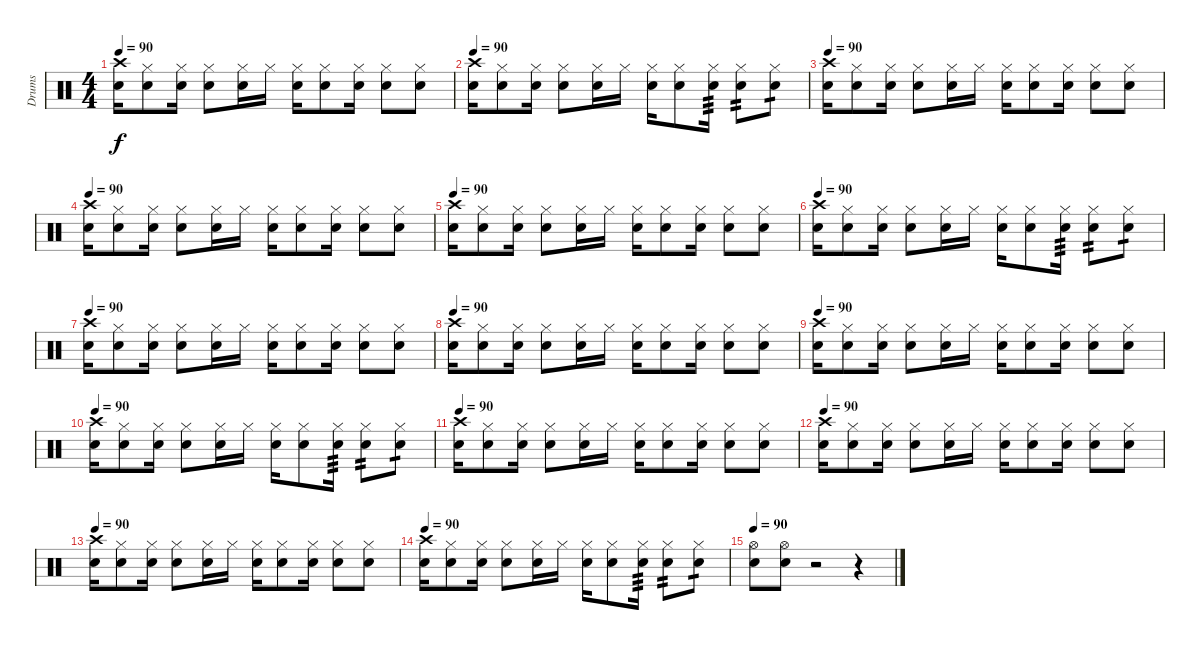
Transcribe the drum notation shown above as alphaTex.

\track ("Drums" "Drums") {instrument percussion}
\staff {score}
\articulation defaults
\ts (4 4)
\tempo 90
\clef neutral
\ks c
("Crash high (hit)" "Snare (hit) 2").16{dy f} ("Hi-Hat (closed)" "Snare (hit) 2").8 ("Hi-Hat (closed)" "Snare (hit) 2").16 ("Hi-Hat (closed)" "Snare (hit) 2").8 ("Hi-Hat (closed)" "Snare (hit) 2").16 "Hi-Hat (closed)".16 ("Hi-Hat (closed)" "Snare (hit) 2").16 ("Hi-Hat (closed)" "Snare (hit) 2").8 ("Hi-Hat (closed)" "Snare (hit) 2").16 ("Hi-Hat (closed)" "Snare (hit) 2").8 ("Hi-Hat (closed)" "Snare (hit) 2").8 |
\tempo 90
("Crash high (hit)" "Snare (hit) 2").16 ("Hi-Hat (closed)" "Snare (hit) 2").8 ("Hi-Hat (closed)" "Snare (hit) 2").16 ("Hi-Hat (closed)" "Snare (hit) 2").8 ("Hi-Hat (closed)" "Snare (hit) 2").16 "Hi-Hat (closed)".16 ("Hi-Hat (closed)" "Snare (hit) 2").16 ("Hi-Hat (closed)" "Snare (hit) 2").8 ("Hi-Hat (closed)" "Snare (hit) 2").16{tp 3} ("Hi-Hat (closed)" "Snare (hit) 2").8{tp 2} ("Hi-Hat (closed)" "Snare (hit) 2").8{tp 1} |
\tempo 90
("Crash high (hit)" "Snare (hit) 2").16 ("Hi-Hat (closed)" "Snare (hit) 2").8 ("Hi-Hat (closed)" "Snare (hit) 2").16 ("Hi-Hat (closed)" "Snare (hit) 2").8 ("Hi-Hat (closed)" "Snare (hit) 2").16 "Hi-Hat (closed)".16 ("Hi-Hat (closed)" "Snare (hit) 2").16 ("Hi-Hat (closed)" "Snare (hit) 2").8 ("Hi-Hat (closed)" "Snare (hit) 2").16 ("Hi-Hat (closed)" "Snare (hit) 2").8 ("Hi-Hat (closed)" "Snare (hit) 2").8 |
\tempo 90
("Crash high (hit)" "Snare (hit) 2").16 ("Hi-Hat (closed)" "Snare (hit) 2").8 ("Hi-Hat (closed)" "Snare (hit) 2").16 ("Hi-Hat (closed)" "Snare (hit) 2").8 ("Hi-Hat (closed)" "Snare (hit) 2").16 "Hi-Hat (closed)".16 ("Hi-Hat (closed)" "Snare (hit) 2").16 ("Hi-Hat (closed)" "Snare (hit) 2").8 ("Hi-Hat (closed)" "Snare (hit) 2").16 ("Hi-Hat (closed)" "Snare (hit) 2").8 ("Hi-Hat (closed)" "Snare (hit) 2").8 |
\tempo 90
("Crash high (hit)" "Snare (hit) 2").16 ("Hi-Hat (closed)" "Snare (hit) 2").8 ("Hi-Hat (closed)" "Snare (hit) 2").16 ("Hi-Hat (closed)" "Snare (hit) 2").8 ("Hi-Hat (closed)" "Snare (hit) 2").16 "Hi-Hat (closed)".16 ("Hi-Hat (closed)" "Snare (hit) 2").16 ("Hi-Hat (closed)" "Snare (hit) 2").8 ("Hi-Hat (closed)" "Snare (hit) 2").16 ("Hi-Hat (closed)" "Snare (hit) 2").8 ("Hi-Hat (closed)" "Snare (hit) 2").8 |
\tempo 90
("Crash high (hit)" "Snare (hit) 2").16 ("Hi-Hat (closed)" "Snare (hit) 2").8 ("Hi-Hat (closed)" "Snare (hit) 2").16 ("Hi-Hat (closed)" "Snare (hit) 2").8 ("Hi-Hat (closed)" "Snare (hit) 2").16 "Hi-Hat (closed)".16 ("Hi-Hat (closed)" "Snare (hit) 2").16 ("Hi-Hat (closed)" "Snare (hit) 2").8 ("Hi-Hat (closed)" "Snare (hit) 2").16{tp 3} ("Hi-Hat (closed)" "Snare (hit) 2").8{tp 2} ("Hi-Hat (closed)" "Snare (hit) 2").8{tp 1} |
\tempo 90
("Crash high (hit)" "Snare (hit) 2").16 ("Hi-Hat (closed)" "Snare (hit) 2").8 ("Hi-Hat (closed)" "Snare (hit) 2").16 ("Hi-Hat (closed)" "Snare (hit) 2").8 ("Hi-Hat (closed)" "Snare (hit) 2").16 "Hi-Hat (closed)".16 ("Hi-Hat (closed)" "Snare (hit) 2").16 ("Hi-Hat (closed)" "Snare (hit) 2").8 ("Hi-Hat (closed)" "Snare (hit) 2").16 ("Hi-Hat (closed)" "Snare (hit) 2").8 ("Hi-Hat (closed)" "Snare (hit) 2").8 |
\tempo 90
("Crash high (hit)" "Snare (hit) 2").16 ("Hi-Hat (closed)" "Snare (hit) 2").8 ("Hi-Hat (closed)" "Snare (hit) 2").16 ("Hi-Hat (closed)" "Snare (hit) 2").8 ("Hi-Hat (closed)" "Snare (hit) 2").16 "Hi-Hat (closed)".16 ("Hi-Hat (closed)" "Snare (hit) 2").16 ("Hi-Hat (closed)" "Snare (hit) 2").8 ("Hi-Hat (closed)" "Snare (hit) 2").16 ("Hi-Hat (closed)" "Snare (hit) 2").8 ("Hi-Hat (closed)" "Snare (hit) 2").8 |
\tempo 90
("Crash high (hit)" "Snare (hit) 2").16 ("Hi-Hat (closed)" "Snare (hit) 2").8 ("Hi-Hat (closed)" "Snare (hit) 2").16 ("Hi-Hat (closed)" "Snare (hit) 2").8 ("Hi-Hat (closed)" "Snare (hit) 2").16 "Hi-Hat (closed)".16 ("Hi-Hat (closed)" "Snare (hit) 2").16 ("Hi-Hat (closed)" "Snare (hit) 2").8 ("Hi-Hat (closed)" "Snare (hit) 2").16 ("Hi-Hat (closed)" "Snare (hit) 2").8 ("Hi-Hat (closed)" "Snare (hit) 2").8 |
\tempo 90
("Crash high (hit)" "Snare (hit) 2").16 ("Hi-Hat (closed)" "Snare (hit) 2").8 ("Hi-Hat (closed)" "Snare (hit) 2").16 ("Hi-Hat (closed)" "Snare (hit) 2").8 ("Hi-Hat (closed)" "Snare (hit) 2").16 "Hi-Hat (closed)".16 ("Hi-Hat (closed)" "Snare (hit) 2").16 ("Hi-Hat (closed)" "Snare (hit) 2").8 ("Hi-Hat (closed)" "Snare (hit) 2").16{tp 3} ("Hi-Hat (closed)" "Snare (hit) 2").8{tp 2} ("Hi-Hat (closed)" "Snare (hit) 2").8{tp 1} |
\tempo 90
("Crash high (hit)" "Snare (hit) 2").16 ("Hi-Hat (closed)" "Snare (hit) 2").8 ("Hi-Hat (closed)" "Snare (hit) 2").16 ("Hi-Hat (closed)" "Snare (hit) 2").8 ("Hi-Hat (closed)" "Snare (hit) 2").16 "Hi-Hat (closed)".16 ("Hi-Hat (closed)" "Snare (hit) 2").16 ("Hi-Hat (closed)" "Snare (hit) 2").8 ("Hi-Hat (closed)" "Snare (hit) 2").16 ("Hi-Hat (closed)" "Snare (hit) 2").8 ("Hi-Hat (closed)" "Snare (hit) 2").8 |
\tempo 90
("Crash high (hit)" "Snare (hit) 2").16 ("Hi-Hat (closed)" "Snare (hit) 2").8 ("Hi-Hat (closed)" "Snare (hit) 2").16 ("Hi-Hat (closed)" "Snare (hit) 2").8 ("Hi-Hat (closed)" "Snare (hit) 2").16 "Hi-Hat (closed)".16 ("Hi-Hat (closed)" "Snare (hit) 2").16 ("Hi-Hat (closed)" "Snare (hit) 2").8 ("Hi-Hat (closed)" "Snare (hit) 2").16 ("Hi-Hat (closed)" "Snare (hit) 2").8 ("Hi-Hat (closed)" "Snare (hit) 2").8 |
\tempo 90
("Crash high (hit)" "Snare (hit) 2").16 ("Hi-Hat (closed)" "Snare (hit) 2").8 ("Hi-Hat (closed)" "Snare (hit) 2").16 ("Hi-Hat (closed)" "Snare (hit) 2").8 ("Hi-Hat (closed)" "Snare (hit) 2").16 "Hi-Hat (closed)".16 ("Hi-Hat (closed)" "Snare (hit) 2").16 ("Hi-Hat (closed)" "Snare (hit) 2").8 ("Hi-Hat (closed)" "Snare (hit) 2").16 ("Hi-Hat (closed)" "Snare (hit) 2").8 ("Hi-Hat (closed)" "Snare (hit) 2").8 |
\tempo 90
("Crash high (hit)" "Snare (hit) 2").16 ("Hi-Hat (closed)" "Snare (hit) 2").8 ("Hi-Hat (closed)" "Snare (hit) 2").16 ("Hi-Hat (closed)" "Snare (hit) 2").8 ("Hi-Hat (closed)" "Snare (hit) 2").16 "Hi-Hat (closed)".16 ("Hi-Hat (closed)" "Snare (hit) 2").16 ("Hi-Hat (closed)" "Snare (hit) 2").8 ("Hi-Hat (closed)" "Snare (hit) 2").16{tp 3} ("Hi-Hat (closed)" "Snare (hit) 2").8{tp 2} ("Hi-Hat (closed)" "Snare (hit) 2").8{tp 1} |
\tempo 90
("Hi-Hat (open)" "Snare (hit) 2").8 ("Hi-Hat (open)" "Snare (hit) 2").8 r.2 r.4
